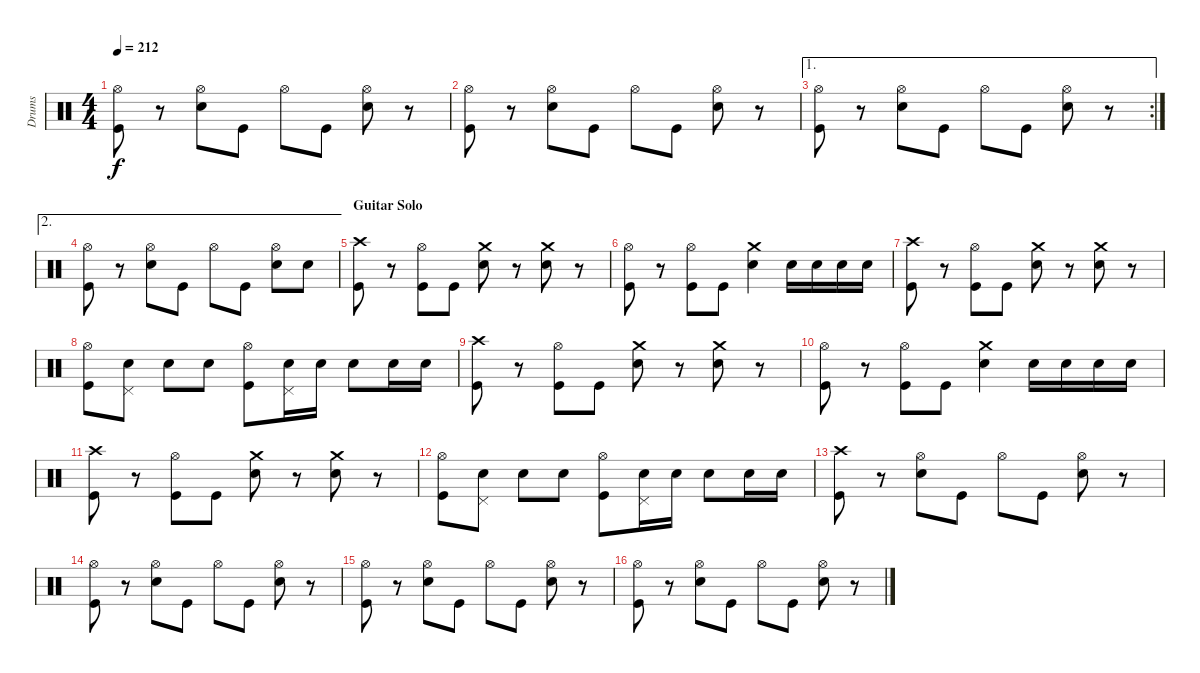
\track ("Drums" "Drums") {instrument percussion}
\staff {score}
\articulation defaults
\ts (4 4)
\tempo 212
\clef neutral
\ks c
("Hi-Hat (open)" "Kick (hit)").8{dy f} r.8 ("Hi-Hat (open)" "Snare (hit) 2").8 "Kick (hit)".8 "Hi-Hat (open)".8 "Kick (hit)".8 ("Hi-Hat (open)" "Snare (hit) 2").8 r.8 |
("Hi-Hat (open)" "Kick (hit)").8 r.8 ("Hi-Hat (open)" "Snare (hit) 2").8 "Kick (hit)".8 "Hi-Hat (open)".8 "Kick (hit)".8 ("Hi-Hat (open)" "Snare (hit) 2").8 r.8 |
\ae 1
\rc 2
("Hi-Hat (open)" "Kick (hit)").8 r.8 ("Hi-Hat (open)" "Snare (hit) 2").8 "Kick (hit)".8 "Hi-Hat (open)".8 "Kick (hit)".8 ("Hi-Hat (open)" "Snare (hit) 2").8 r.8 |
\ae 2
("Hi-Hat (open)" "Kick (hit)").8 r.8 ("Hi-Hat (open)" "Snare (hit) 2").8 "Kick (hit)".8 "Hi-Hat (open)".8 "Kick (hit)".8 ("Hi-Hat (open)" "Snare (hit) 2").8 "Snare (hit) 2".8 |
\section ("" "Guitar Solo")
("Crash high (hit)" "Kick (hit)").8 r.8 ("Hi-Hat (open)" "Kick (hit)").8 "Kick (hit)".8 ("Crash medium (hit)" "Snare (hit) 2").8 r.8 ("Crash medium (hit)" "Snare (hit) 2").8 r.8 |
("Hi-Hat (open)" "Kick (hit)").8 r.8 ("Hi-Hat (open)" "Kick (hit)").8 "Kick (hit)".8 ("Crash medium (hit)" "Snare (hit) 2").4 "Snare (hit) 2".16 "Snare (hit) 2".16 "Snare (hit) 2".16 "Snare (hit) 2".16 |
("Crash high (hit)" "Kick (hit)").8 r.8 ("Hi-Hat (open)" "Kick (hit)").8 "Kick (hit)".8 ("Crash medium (hit)" "Snare (hit) 2").8 r.8 ("Crash medium (hit)" "Snare (hit) 2").8 r.8 |
("Hi-Hat (open)" "Kick (hit)").8 ("Pedal Hi-Hat (hit)" "Snare (hit) 2").8 "Snare (hit) 2".8 "Snare (hit) 2".8 ("Hi-Hat (open)" "Kick (hit)").8 ("Pedal Hi-Hat (hit)" "Snare (hit) 2").16 "Snare (hit) 2".16 "Snare (hit) 2".8 "Snare (hit) 2".16 "Snare (hit) 2".16 |
("Crash high (hit)" "Kick (hit)").8 r.8 ("Hi-Hat (open)" "Kick (hit)").8 "Kick (hit)".8 ("Crash medium (hit)" "Snare (hit) 2").8 r.8 ("Crash medium (hit)" "Snare (hit) 2").8 r.8 |
("Hi-Hat (open)" "Kick (hit)").8 r.8 ("Hi-Hat (open)" "Kick (hit)").8 "Kick (hit)".8 ("Crash medium (hit)" "Snare (hit) 2").4 "Snare (hit) 2".16 "Snare (hit) 2".16 "Snare (hit) 2".16 "Snare (hit) 2".16 |
("Crash high (hit)" "Kick (hit)").8 r.8 ("Hi-Hat (open)" "Kick (hit)").8 "Kick (hit)".8 ("Crash medium (hit)" "Snare (hit) 2").8 r.8 ("Crash medium (hit)" "Snare (hit) 2").8 r.8 |
("Hi-Hat (open)" "Kick (hit)").8 ("Pedal Hi-Hat (hit)" "Snare (hit) 2").8 "Snare (hit) 2".8 "Snare (hit) 2".8 ("Hi-Hat (open)" "Kick (hit)").8 ("Pedal Hi-Hat (hit)" "Snare (hit) 2").16 "Snare (hit) 2".16 "Snare (hit) 2".8 "Snare (hit) 2".16 "Snare (hit) 2".16 |
("Crash high (hit)" "Kick (hit)").8 r.8 ("Hi-Hat (open)" "Snare (hit) 2").8 "Kick (hit)".8 "Hi-Hat (open)".8 "Kick (hit)".8 ("Hi-Hat (open)" "Snare (hit) 2").8 r.8 |
("Hi-Hat (open)" "Kick (hit)").8 r.8 ("Hi-Hat (open)" "Snare (hit) 2").8 "Kick (hit)".8 "Hi-Hat (open)".8 "Kick (hit)".8 ("Hi-Hat (open)" "Snare (hit) 2").8 r.8 |
("Hi-Hat (open)" "Kick (hit)").8 r.8 ("Hi-Hat (open)" "Snare (hit) 2").8 "Kick (hit)".8 "Hi-Hat (open)".8 "Kick (hit)".8 ("Hi-Hat (open)" "Snare (hit) 2").8 r.8 |
("Hi-Hat (open)" "Kick (hit)").8 r.8 ("Hi-Hat (open)" "Snare (hit) 2").8 "Kick (hit)".8 "Hi-Hat (open)".8 "Kick (hit)".8 ("Hi-Hat (open)" "Snare (hit) 2").8 r.8
